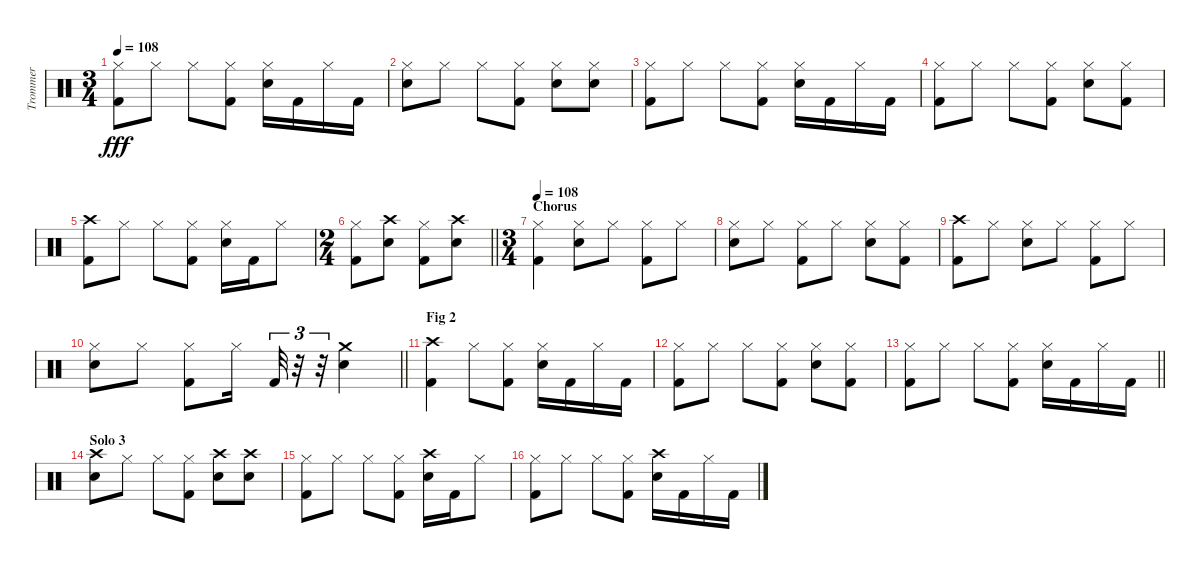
\track ("Trommer" "Trommer") {instrument percussion}
\staff {score}
\articulation defaults
\ts (3 4)
\tempo 108
\clef neutral
\ks c
("Hi-Hat (closed)" "Kick (hit) 2").8{dy fff} "Hi-Hat (closed)".8 "Hi-Hat (closed)".8 ("Hi-Hat (closed)" "Kick (hit) 2").8 ("Hi-Hat (closed)" "Electric Snare (hit)").16 "Kick (hit) 2".16 "Hi-Hat (closed)".16 "Kick (hit) 2".16 |
("Hi-Hat (closed)" "Electric Snare (hit)").8 "Hi-Hat (closed)".8 "Hi-Hat (closed)".8 ("Hi-Hat (closed)" "Kick (hit) 2").8 ("Hi-Hat (closed)" "Electric Snare (hit)").8 ("Hi-Hat (closed)" "Electric Snare (hit)").8 |
("Hi-Hat (closed)" "Kick (hit) 2").8 "Hi-Hat (closed)".8 "Hi-Hat (closed)".8 ("Hi-Hat (closed)" "Kick (hit) 2").8 ("Hi-Hat (closed)" "Electric Snare (hit)").16 "Kick (hit) 2".16 "Hi-Hat (closed)".16 "Kick (hit) 2".16 |
("Hi-Hat (closed)" "Kick (hit) 2").8 "Hi-Hat (closed)".8 "Hi-Hat (closed)".8 ("Hi-Hat (closed)" "Kick (hit) 2").8 ("Hi-Hat (closed)" "Electric Snare (hit)").8 ("Hi-Hat (closed)" "Kick (hit) 2").8 |
("Crash high (hit)" "Kick (hit) 2").8 "Hi-Hat (closed)".8 "Hi-Hat (closed)".8 ("Hi-Hat (closed)" "Kick (hit) 2").8 ("Hi-Hat (closed)" "Electric Snare (hit)").16 "Kick (hit) 2".16 "Hi-Hat (closed)".8 |
\ts (2 4)
\barLineRight lightlight
("Hi-Hat (closed)" "Kick (hit) 2").8 ("Crash high (hit)" "Electric Snare (hit)").8 ("Hi-Hat (closed)" "Kick (hit) 2").8 ("Crash high (hit)" "Electric Snare (hit)").8 |
\ts (3 4)
\section ("" "Chorus")
\tempo 108
("Hi-Hat (closed)" "Kick (hit) 2").4 ("Hi-Hat (closed)" "Electric Snare (hit)").8 "Hi-Hat (closed)".8 ("Hi-Hat (closed)" "Kick (hit) 2").8 "Hi-Hat (closed)".8 |
("Hi-Hat (closed)" "Electric Snare (hit)").8 "Hi-Hat (closed)".8 ("Hi-Hat (closed)" "Kick (hit) 2").8 "Hi-Hat (closed)".8 ("Hi-Hat (closed)" "Electric Snare (hit)").8 ("Hi-Hat (closed)" "Kick (hit) 2").8 |
("Crash high (hit)" "Kick (hit) 2").8 "Hi-Hat (closed)".8 ("Hi-Hat (closed)" "Electric Snare (hit)").8 "Hi-Hat (closed)".8 ("Hi-Hat (closed)" "Kick (hit) 2").8 "Hi-Hat (closed)".8 |
\barLineRight lightlight
("Hi-Hat (closed)" "Electric Snare (hit)").8 "Hi-Hat (closed)".8 ("Hi-Hat (closed)" "Kick (hit) 2").8 "Hi-Hat (closed)".16 "Kick (hit) 2".32{tu (3 2)} r.32{tu (3 2)} r.32{tu (3 2)} ("Crash medium (hit)" "Electric Snare (hit)").4 |
\section ("" "Fig 2")
("Crash high (hit)" "Kick (hit) 2").4 "Hi-Hat (closed)".8 ("Hi-Hat (closed)" "Kick (hit) 2").8 ("Hi-Hat (closed)" "Electric Snare (hit)").16 "Kick (hit) 2".16 "Hi-Hat (closed)".16 "Kick (hit) 2".16 |
("Hi-Hat (closed)" "Kick (hit) 2").8 "Hi-Hat (closed)".8 "Hi-Hat (closed)".8 ("Hi-Hat (closed)" "Kick (hit) 2").8 ("Hi-Hat (closed)" "Electric Snare (hit)").8 ("Hi-Hat (closed)" "Kick (hit) 2").8 |
\barLineRight lightlight
("Hi-Hat (closed)" "Kick (hit) 2").8 "Hi-Hat (closed)".8 "Hi-Hat (closed)".8 ("Hi-Hat (closed)" "Kick (hit) 2").8 ("Hi-Hat (closed)" "Electric Snare (hit)").16 "Kick (hit) 2".16 "Hi-Hat (closed)".16 "Kick (hit) 2".16 |
\section ("" "Solo 3")
("Crash high (hit)" "Electric Snare (hit)").8 "Hi-Hat (closed)".8 "Hi-Hat (closed)".8 ("Hi-Hat (closed)" "Kick (hit) 2").8 ("Crash high (hit)" "Electric Snare (hit)").8 ("Crash high (hit)" "Electric Snare (hit)").8 |
("Hi-Hat (closed)" "Kick (hit) 2").8 "Hi-Hat (closed)".8 "Hi-Hat (closed)".8 ("Hi-Hat (closed)" "Kick (hit) 2").8 ("Crash high (hit)" "Electric Snare (hit)").16 "Kick (hit) 2".16 "Hi-Hat (closed)".8 |
("Hi-Hat (closed)" "Kick (hit) 2").8 "Hi-Hat (closed)".8 "Hi-Hat (closed)".8 ("Hi-Hat (closed)" "Kick (hit) 2").8 ("Crash high (hit)" "Electric Snare (hit)").16 "Kick (hit) 2".16 "Hi-Hat (closed)".16 "Kick (hit) 2".16
